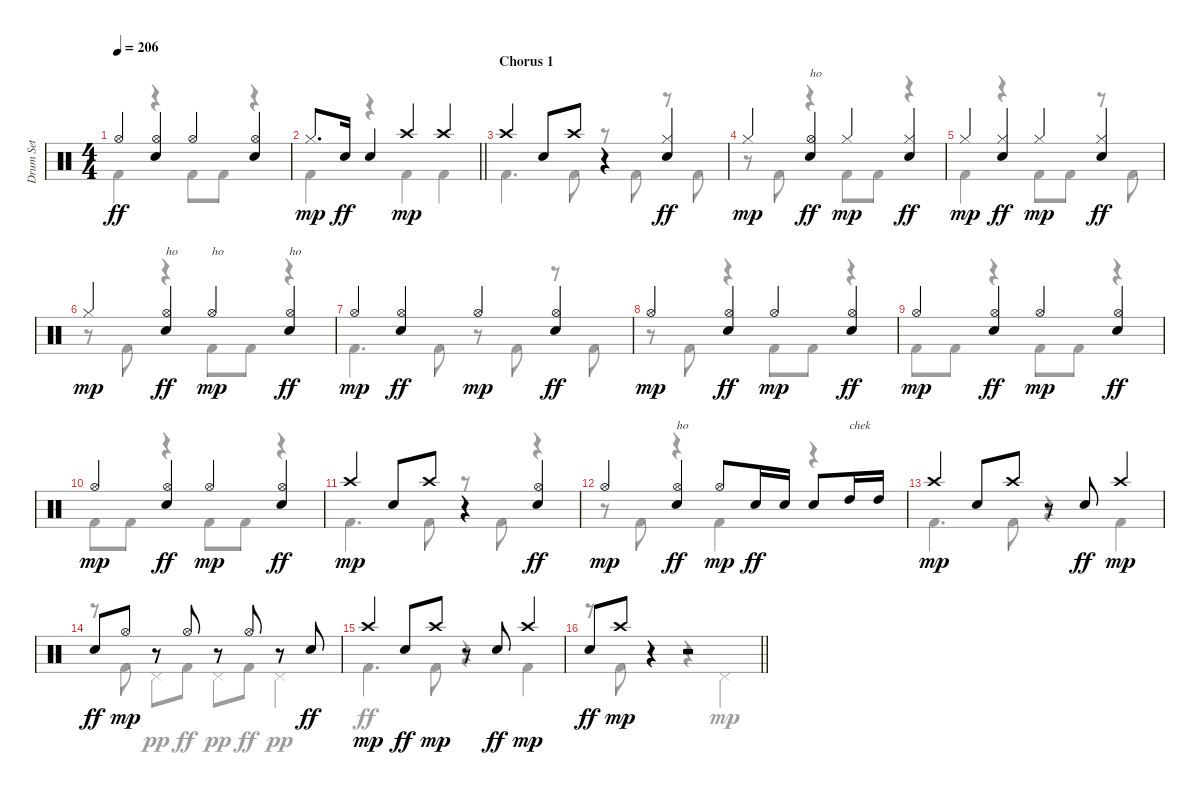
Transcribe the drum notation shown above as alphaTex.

\track ("Drum Set" "Drum Set") {instrument percussion}
\staff {score}
\articulation defaults
\voice
\ts (4 4)
\tempo 206
\clef neutral
\ks c "Hi-Hat (open)".4{dy ff}
("Hi-Hat (open)" "Electric Snare (hit)").4 "Hi-Hat (open)".4 ("Hi-Hat (open)" "Electric Snare (hit)").4 |
\barLineRight lightlight "Hi-Hat (closed)".8{d dy mp} "Electric Snare (hit)".16{dy ff} "Electric Snare (hit)".4 "Crash high (hit)".4{dy mp} "Crash high (hit)".4
|
\section ("" "Chorus 1")
"Crash high (hit)".4 "Electric Snare (hit)".8 "Crash high (hit)".8 r.4 ("Hi-Hat (closed)" "Electric Snare (hit)").4{dy ff} |
"Hi-Hat (closed)".4{dy mp} ("Hi-Hat (open)" "Electric Snare (hit)").4{txt "ho" dy ff} "Hi-Hat (closed)".4{dy mp} ("Hi-Hat (closed)" "Electric Snare (hit)").4{dy ff} |
"Hi-Hat (closed)".4{dy mp} ("Hi-Hat (closed)" "Electric Snare (hit)").4{dy ff} "Hi-Hat (closed)".4{dy mp} ("Hi-Hat (closed)" "Electric Snare (hit)").4{dy ff} |
"Hi-Hat (closed)".4{dy mp} ("Hi-Hat (open)" "Electric Snare (hit)").4{txt "ho" dy ff} "Hi-Hat (open)".4{txt "ho" dy mp} ("Hi-Hat (open)" "Electric Snare (hit)").4{txt "ho" dy ff} |
"Hi-Hat (open)".4{dy mp} ("Hi-Hat (open)" "Electric Snare (hit)").4{dy ff} "Hi-Hat (open)".4{dy mp} ("Hi-Hat (open)" "Electric Snare (hit)").4{dy ff} |
"Hi-Hat (open)".4{dy mp} ("Hi-Hat (open)" "Electric Snare (hit)").4{dy ff} "Hi-Hat (open)".4{dy mp} ("Hi-Hat (open)" "Electric Snare (hit)").4{dy ff} |
"Hi-Hat (open)".4{dy mp} ("Hi-Hat (open)" "Electric Snare (hit)").4{dy ff} "Hi-Hat (open)".4{dy mp} ("Hi-Hat (open)" "Electric Snare (hit)").4{dy ff} |
"Hi-Hat (open)".4{dy mp} ("Hi-Hat (open)" "Electric Snare (hit)").4{dy ff} "Hi-Hat (open)".4{dy mp} ("Hi-Hat (open)" "Electric Snare (hit)").4{dy ff} |
"Crash high (hit)".4{dy mp} "Electric Snare (hit)".8 "Crash high (hit)".8 r.4 ("Hi-Hat (open)" "Electric Snare (hit)").4{dy ff} |
"Hi-Hat (open)".4{dy mp} ("Hi-Hat (open)" "Electric Snare (hit)").4{txt "ho" dy ff} "Hi-Hat (open)".8{dy mp} "Electric Snare (hit)".16{dy ff} "Electric Snare (hit)".16 "Electric Snare (hit)".8 "High Tom (hit)".16{txt "chek"} "High Tom (hit)".16 |
"Crash high (hit)".4{dy mp} "Electric Snare (hit)".8 "Crash high (hit)".8 r.8 "Electric Snare (hit)".8{dy ff} "Crash high (hit)".4{dy mp} |
"Electric Snare (hit)".8{dy ff} "Hi-Hat (open)".8{dy mp} r.8 "Hi-Hat (open)".8 r.8 "Hi-Hat (open)".8 r.8 "Electric Snare (hit)".8{dy ff} |
"Crash high (hit)".4{dy mp} "Electric Snare (hit)".8{dy ff} "Crash high (hit)".8{dy mp} r.8 "Electric Snare (hit)".8{dy ff} "Crash high (hit)".4{dy mp} |
\barLineRight lightlight "Electric Snare (hit)".8{dy ff} "Crash high (hit)".8{dy mp}
r.4 r.2
\voice
\clef neutral
\ottava regular
\simile none
\ks c "Kick (hit) 2".4{dy ff}
r.4 "Kick (hit) 2".8 "Kick (hit) 2".8 r.4 |
\barLineRight lightlight "Kick (hit) 2".4
r.4 "Kick (hit) 2".4 "Kick (hit) 2".4 |
"Kick (hit) 2".4{d} "Kick (hit) 2".8 r.8 "Kick (hit) 2".8 r.8 "Kick (hit) 2".8 |
r.8 "Kick (hit) 2".8 r.4 "Kick (hit) 2".8 "Kick (hit) 2".8 r.4 |
"Kick (hit) 2".4 r.4 "Kick (hit) 2".8 "Kick (hit) 2".8 r.8 "Kick (hit) 2".8 |
r.8 "Kick (hit) 2".8 r.4 "Kick (hit) 2".8 "Kick (hit) 2".8 r.4 |
"Kick (hit) 2".4{d} "Kick (hit) 2".8 r.8 "Kick (hit) 2".8 r.8 "Kick (hit) 2".8 |
r.8 "Kick (hit) 2".8 r.4 "Kick (hit) 2".8 "Kick (hit) 2".8 r.4 |
"Kick (hit) 2".8 "Kick (hit) 2".8 r.4 "Kick (hit) 2".8 "Kick (hit) 2".8 r.4 |
"Kick (hit) 2".8 "Kick (hit) 2".8 r.4 "Kick (hit) 2".8 "Kick (hit) 2".8 r.4 |
"Kick (hit) 2".4{d} "Kick (hit) 2".8 r.8 "Kick (hit) 2".8 r.4 |
r.8 "Kick (hit) 2".8 r.4 "Kick (hit) 2".4 r.4 |
"Kick (hit) 2".4{d} "Kick (hit) 2".8 r.4 "Kick (hit) 2".4 |
r.8 "Kick (hit) 2".8 "Pedal Hi-Hat (hit)".8{dy pp} "Kick (hit) 2".8{dy ff} "Pedal Hi-Hat (hit)".8{dy pp} "Kick (hit) 2".8{dy ff} "Pedal Hi-Hat (hit)".4{dy pp} |
"Kick (hit) 2".4{d dy ff} "Kick (hit) 2".8 r.4 "Kick (hit) 2".4 |
\barLineRight lightlight
r.8 "Kick (hit) 2".8 r.4 r.4 "Pedal Hi-Hat (hit)".4{dy mp}
